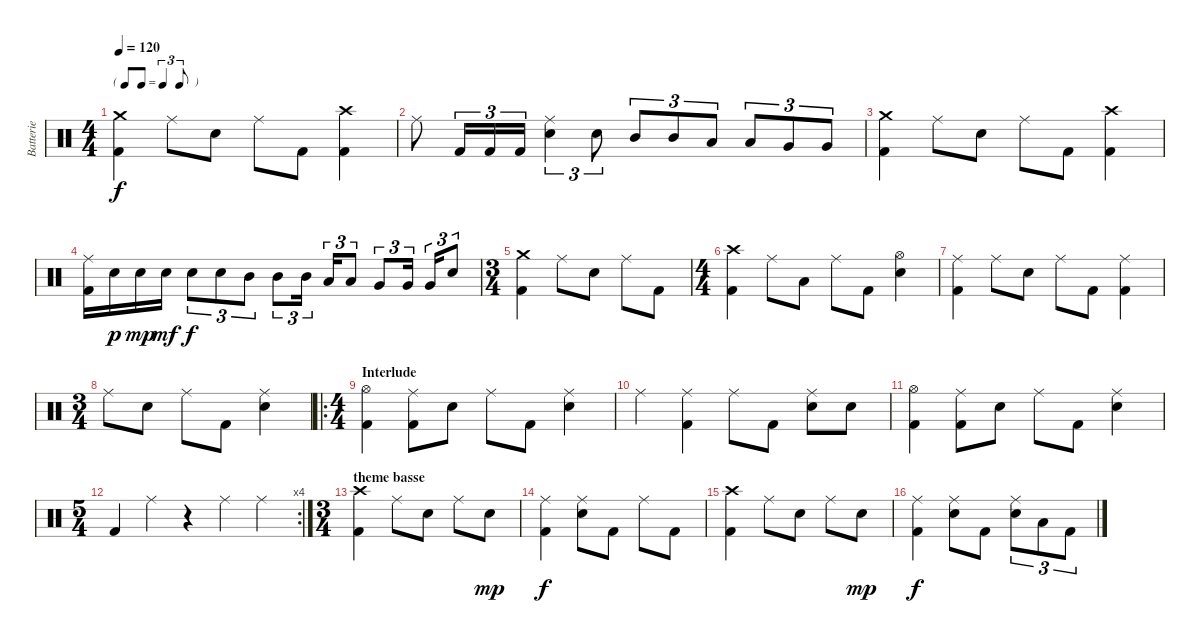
\track ("Batterie" "Batterie") {instrument percussion}
\staff {score}
\articulation defaults
\ts (4 4)
\tf triplet8th
\tempo 120
\clef neutral
\ks c
("Crash medium (hit)" "Kick (hit) 2").4{dy f} "Ride (middle)".8 "Electric Snare (hit)".8 "Ride (middle)".8 "Kick (hit) 2".8 ("Crash high (hit)" "Kick (hit) 2").4 |
"Ride (middle)".8 "Kick (hit) 2".16{tu (3 2)} "Kick (hit) 2".16{tu (3 2)} "Kick (hit) 2".16{tu (3 2)} ("Ride (middle)" "Electric Snare (hit)").4{tu (3 2)} "Electric Snare (hit)".8{tu (3 2)} "Mid Tom (hit)".8{tu (3 2)} "Mid Tom (hit)".8{tu (3 2)} "Low Tom (hit)".8{tu (3 2)} "Low Tom (hit)".8{tu (3 2)} "Very Low Tom (hit)".8{tu (3 2)} "Very Low Tom (hit)".8{tu (3 2)} |
("Crash medium (hit)" "Kick (hit) 2").4 "Ride (middle)".8 "Electric Snare (hit)".8 "Ride (middle)".8 "Kick (hit) 2".8 ("Crash high (hit)" "Kick (hit) 2").4 |
("Ride (middle)" "Kick (hit) 2").16 "Electric Snare (hit)".16{dy p} "Electric Snare (hit)".16{dy mp} "Electric Snare (hit)".16{dy mf} "Electric Snare (hit)".8{tu (3 2) dy f} "Electric Snare (hit)".8{tu (3 2)} "Mid Tom (hit)".8{tu (3 2)} "Mid Tom (hit)".8{tu (3 2)} "Mid Tom (hit)".16{tu (3 2)} "Low Tom (hit)".16{tu (3 2)} "Low Tom (hit)".8{tu (3 2)} "Very Low Tom (hit)".8{tu (3 2)} "Very Low Tom (hit)".16{tu (3 2)} "Very Low Tom (hit)".16{tu (3 2)} "Snare (hit)".8{tu (3 2)} |
\ts (3 4)
("Crash medium (hit)" "Kick (hit) 2").4 "Ride (middle)".8 "Electric Snare (hit)".8 "Ride (middle)".8 "Kick (hit) 2".8 |
\ts (4 4)
("Crash high (hit)" "Kick (hit) 2").4 "Ride (middle)".8 "Low Tom (hit)".8 "Ride (middle)".8 "Kick (hit) 2".8 ("Hi-Hat (open)" "Electric Snare (hit)").4 |
("Ride (middle)" "Kick (hit) 2").4 "Ride (middle)".8 "Electric Snare (hit)".8 "Ride (middle)".8 "Kick (hit) 2".8 ("Ride (middle)" "Kick (hit) 2").4 |
\ts (3 4)
"Ride (middle)".8 "Electric Snare (hit)".8 "Ride (middle)".8 "Kick (hit) 2".8 ("Ride (middle)" "Electric Snare (hit)").4 |
\ro
\ts (4 4)
\section ("" "Interlude")
("Hi-Hat (open)" "Kick (hit) 2").4 ("Ride (middle)" "Kick (hit) 2").8 "Electric Snare (hit)".8 "Ride (middle)".8 "Kick (hit) 2".8 ("Ride (middle)" "Electric Snare (hit)").4 |
"Ride (middle)".4 ("Ride (middle)" "Kick (hit) 2").4 "Ride (middle)".8 "Kick (hit) 2".8 ("Ride (middle)" "Electric Snare (hit)").8 "Electric Snare (hit)".8 |
("Hi-Hat (open)" "Kick (hit) 2").4 ("Ride (middle)" "Kick (hit) 2").8 "Electric Snare (hit)".8 "Ride (middle)".8 "Kick (hit) 2".8 ("Ride (middle)" "Electric Snare (hit)").4 |
\rc 4
\ts (5 4)
"Kick (hit) 2".4 "Ride (middle)".4 r.4 "Ride (middle)".4 "Ride (middle)".4 |
\ts (3 4)
\section ("" "theme basse")
("Crash high (hit)" "Kick (hit) 2").4 "Ride (middle)".8 "Electric Snare (hit)".8 "Ride (middle)".8 "Electric Snare (hit)".8{dy mp} |
("Ride (middle)" "Kick (hit) 2").4{dy f} ("Ride (middle)" "Electric Snare (hit)").8 "Kick (hit) 2".8 "Ride (middle)".8 "Kick (hit) 2".8 |
("Crash high (hit)" "Kick (hit) 2").4 "Ride (middle)".8 "Electric Snare (hit)".8 "Ride (middle)".8 "Electric Snare (hit)".8{dy mp} |
("Ride (middle)" "Kick (hit) 2").4{dy f} ("Ride (middle)" "Electric Snare (hit)").8 "Kick (hit) 2".8 ("Ride (middle)" "Electric Snare (hit)").8{tu (3 2)} "Low Tom (hit)".8{tu (3 2)} "Kick (hit) 2".8{tu (3 2)}
